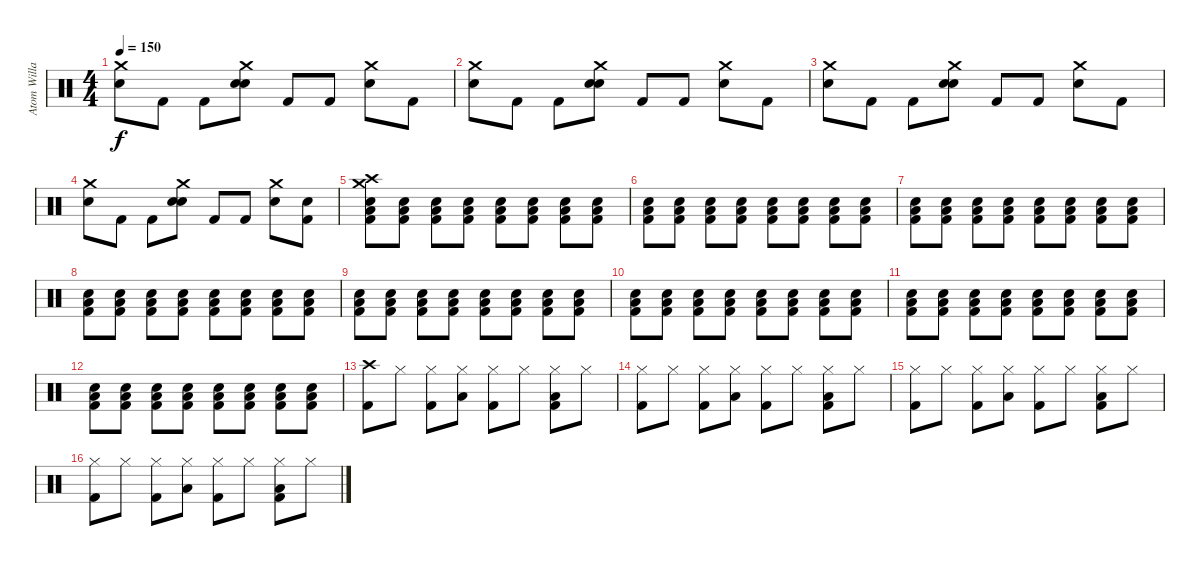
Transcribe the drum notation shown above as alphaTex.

\track ("Atom Willard - Drums" "Atom Willa") {instrument percussion}
\staff {score}
\articulation defaults
\ts (4 4)
\tempo 150
\clef neutral
\ks c
("Crash medium (hit)" "Electric Snare (hit)").8{dy f} "Kick (hit) 2".8 "Kick (hit) 2".8 ("Crash medium (hit)" "Electric Snare (hit)" "Snare (hit)").8 "Kick (hit) 2".8 "Kick (hit) 2".8 ("Crash medium (hit)" "Electric Snare (hit)").8 "Kick (hit) 2".8 |
("Crash medium (hit)" "Electric Snare (hit)").8 "Kick (hit) 2".8 "Kick (hit) 2".8 ("Crash medium (hit)" "Electric Snare (hit)" "Snare (hit)").8 "Kick (hit) 2".8 "Kick (hit) 2".8 ("Crash medium (hit)" "Electric Snare (hit)").8 "Kick (hit) 2".8 |
("Crash medium (hit)" "Electric Snare (hit)").8 "Kick (hit) 2".8 "Kick (hit) 2".8 ("Crash medium (hit)" "Electric Snare (hit)" "Snare (hit)").8 "Kick (hit) 2".8 "Kick (hit) 2".8 ("Crash medium (hit)" "Electric Snare (hit)").8 "Kick (hit) 2".8 |
("Crash medium (hit)" "Electric Snare (hit)").8 "Kick (hit) 2".8 "Kick (hit) 2".8 ("Crash medium (hit)" "Electric Snare (hit)" "Snare (hit)").8 "Kick (hit) 2".8 "Kick (hit) 2".8 ("Crash medium (hit)" "Electric Snare (hit)").8 ("Electric Snare (hit)" "Kick (hit) 2").8 |
("Crash medium (hit)" "Crash high (hit)" "Low Tom (hit)" "Electric Snare (hit)" "Kick (hit) 2").8 ("Low Tom (hit)" "Electric Snare (hit)" "Kick (hit) 2").8 ("Low Tom (hit)" "Electric Snare (hit)" "Kick (hit) 2").8 ("Low Tom (hit)" "Electric Snare (hit)" "Kick (hit) 2").8 ("Low Tom (hit)" "Electric Snare (hit)" "Kick (hit) 2").8 ("Low Tom (hit)" "Electric Snare (hit)" "Kick (hit) 2").8 ("Low Tom (hit)" "Electric Snare (hit)" "Kick (hit) 2").8 ("Low Tom (hit)" "Electric Snare (hit)" "Kick (hit) 2").8 |
("Low Tom (hit)" "Electric Snare (hit)" "Kick (hit) 2").8 ("Low Tom (hit)" "Electric Snare (hit)" "Kick (hit) 2").8 ("Low Tom (hit)" "Electric Snare (hit)" "Kick (hit) 2").8 ("Low Tom (hit)" "Electric Snare (hit)" "Kick (hit) 2").8 ("Low Tom (hit)" "Electric Snare (hit)" "Kick (hit) 2").8 ("Low Tom (hit)" "Electric Snare (hit)" "Kick (hit) 2").8 ("Low Tom (hit)" "Electric Snare (hit)" "Kick (hit) 2").8 ("Low Tom (hit)" "Electric Snare (hit)" "Kick (hit) 2").8 |
("Low Tom (hit)" "Electric Snare (hit)" "Kick (hit) 2").8 ("Low Tom (hit)" "Electric Snare (hit)" "Kick (hit) 2").8 ("Low Tom (hit)" "Electric Snare (hit)" "Kick (hit) 2").8 ("Low Tom (hit)" "Electric Snare (hit)" "Kick (hit) 2").8 ("Low Tom (hit)" "Electric Snare (hit)" "Kick (hit) 2").8 ("Low Tom (hit)" "Electric Snare (hit)" "Kick (hit) 2").8 ("Low Tom (hit)" "Electric Snare (hit)" "Kick (hit) 2").8 ("Low Tom (hit)" "Electric Snare (hit)" "Kick (hit) 2").8 |
("Low Tom (hit)" "Electric Snare (hit)" "Kick (hit) 2").8 ("Low Tom (hit)" "Electric Snare (hit)" "Kick (hit) 2").8 ("Low Tom (hit)" "Electric Snare (hit)" "Kick (hit) 2").8 ("Low Tom (hit)" "Electric Snare (hit)" "Kick (hit) 2").8 ("Low Tom (hit)" "Electric Snare (hit)" "Kick (hit) 2").8 ("Low Tom (hit)" "Electric Snare (hit)" "Kick (hit) 2").8 ("Low Tom (hit)" "Electric Snare (hit)" "Kick (hit) 2").8 ("Low Tom (hit)" "Electric Snare (hit)" "Kick (hit) 2").8 |
("Low Tom (hit)" "Electric Snare (hit)" "Kick (hit) 2").8 ("Low Tom (hit)" "Electric Snare (hit)" "Kick (hit) 2").8 ("Low Tom (hit)" "Electric Snare (hit)" "Kick (hit) 2").8 ("Low Tom (hit)" "Electric Snare (hit)" "Kick (hit) 2").8 ("Low Tom (hit)" "Electric Snare (hit)" "Kick (hit) 2").8 ("Low Tom (hit)" "Electric Snare (hit)" "Kick (hit) 2").8 ("Low Tom (hit)" "Electric Snare (hit)" "Kick (hit) 2").8 ("Low Tom (hit)" "Electric Snare (hit)" "Kick (hit) 2").8 |
("Low Tom (hit)" "Electric Snare (hit)" "Kick (hit) 2").8 ("Low Tom (hit)" "Electric Snare (hit)" "Kick (hit) 2").8 ("Low Tom (hit)" "Electric Snare (hit)" "Kick (hit) 2").8 ("Low Tom (hit)" "Electric Snare (hit)" "Kick (hit) 2").8 ("Low Tom (hit)" "Electric Snare (hit)" "Kick (hit) 2").8 ("Low Tom (hit)" "Electric Snare (hit)" "Kick (hit) 2").8 ("Low Tom (hit)" "Electric Snare (hit)" "Kick (hit) 2").8 ("Low Tom (hit)" "Electric Snare (hit)" "Kick (hit) 2").8 |
("Low Tom (hit)" "Electric Snare (hit)" "Kick (hit) 2").8 ("Low Tom (hit)" "Electric Snare (hit)" "Kick (hit) 2").8 ("Low Tom (hit)" "Electric Snare (hit)" "Kick (hit) 2").8 ("Low Tom (hit)" "Electric Snare (hit)" "Kick (hit) 2").8 ("Low Tom (hit)" "Electric Snare (hit)" "Kick (hit) 2").8 ("Low Tom (hit)" "Electric Snare (hit)" "Kick (hit) 2").8 ("Low Tom (hit)" "Electric Snare (hit)" "Kick (hit) 2").8 ("Low Tom (hit)" "Electric Snare (hit)" "Kick (hit) 2").8 |
("Low Tom (hit)" "Electric Snare (hit)" "Kick (hit) 2").8 ("Low Tom (hit)" "Electric Snare (hit)" "Kick (hit) 2").8 ("Low Tom (hit)" "Electric Snare (hit)" "Kick (hit) 2").8 ("Low Tom (hit)" "Electric Snare (hit)" "Kick (hit) 2").8 ("Low Tom (hit)" "Electric Snare (hit)" "Kick (hit) 2").8 ("Low Tom (hit)" "Electric Snare (hit)" "Kick (hit) 2").8 ("Low Tom (hit)" "Electric Snare (hit)" "Kick (hit) 2").8 ("Low Tom (hit)" "Electric Snare (hit)" "Kick (hit) 2").8 |
("Crash high (hit)" "Kick (hit) 2").8 "Hi-Hat (closed)".8 ("Hi-Hat (closed)" "Kick (hit) 2").8 ("Low Tom (hit)" "Hi-Hat (closed)").8 ("Hi-Hat (closed)" "Kick (hit) 2").8 "Hi-Hat (closed)".8 ("Low Floor Tom (hit)" "Hi-Hat (closed)" "Kick (hit) 2").8 "Hi-Hat (closed)".8 |
("Hi-Hat (closed)" "Kick (hit) 2").8 "Hi-Hat (closed)".8 ("Hi-Hat (closed)" "Kick (hit) 2").8 ("Low Tom (hit)" "Hi-Hat (closed)").8 ("Hi-Hat (closed)" "Kick (hit) 2").8 "Hi-Hat (closed)".8 ("Low Floor Tom (hit)" "Hi-Hat (closed)" "Kick (hit) 2").8 "Hi-Hat (closed)".8 |
("Hi-Hat (closed)" "Kick (hit) 2").8 "Hi-Hat (closed)".8 ("Hi-Hat (closed)" "Kick (hit) 2").8 ("Low Tom (hit)" "Hi-Hat (closed)").8 ("Hi-Hat (closed)" "Kick (hit) 2").8 "Hi-Hat (closed)".8 ("Low Floor Tom (hit)" "Hi-Hat (closed)" "Kick (hit) 2").8 "Hi-Hat (closed)".8 |
("Hi-Hat (closed)" "Kick (hit) 2").8 "Hi-Hat (closed)".8 ("Hi-Hat (closed)" "Kick (hit) 2").8 ("Low Tom (hit)" "Hi-Hat (closed)").8 ("Hi-Hat (closed)" "Kick (hit) 2").8 "Hi-Hat (closed)".8 ("Low Floor Tom (hit)" "Hi-Hat (closed)" "Kick (hit) 2").8 "Hi-Hat (closed)".8
